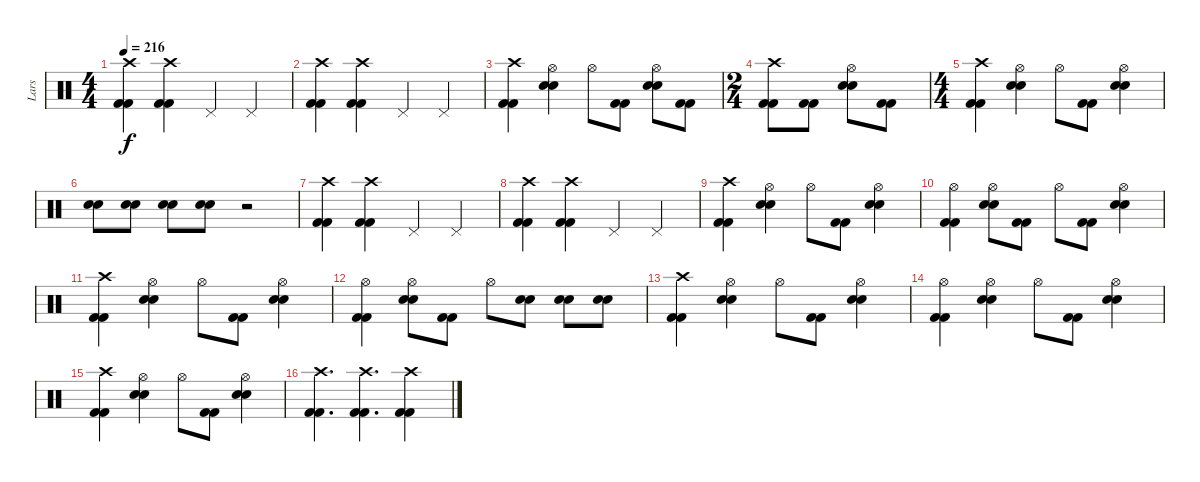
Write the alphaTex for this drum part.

\track ("Lars" "Lars") {instrument percussion}
\staff {score}
\articulation defaults
\ts (4 4)
\tempo 216
\clef neutral
\ks c
("Crash high (hit)" "Kick (hit) 2" "Kick (hit) 2").4{dy f} ("Crash high (hit)" "Kick (hit) 2" "Kick (hit) 2").4 "Pedal Hi-Hat (hit)".4 "Pedal Hi-Hat (hit)".4 |
("Crash high (hit)" "Kick (hit) 2" "Kick (hit) 2").4 ("Crash high (hit)" "Kick (hit) 2" "Kick (hit) 2").4 "Pedal Hi-Hat (hit)".4 "Pedal Hi-Hat (hit)".4 |
("Crash high (hit)" "Kick (hit) 2" "Kick (hit) 2").4 ("Hi-Hat (open)" "Electric Snare (hit)" "Electric Snare (hit)").4 "Hi-Hat (open)".8 ("Kick (hit) 2" "Kick (hit) 2").8 ("Hi-Hat (open)" "Electric Snare (hit)" "Electric Snare (hit)").8 ("Kick (hit) 2" "Kick (hit) 2").8 |
\ts (2 4)
("Crash high (hit)" "Kick (hit) 2" "Kick (hit) 2").8 ("Kick (hit) 2" "Kick (hit) 2").8 ("Hi-Hat (open)" "Electric Snare (hit)" "Electric Snare (hit)").8 ("Kick (hit) 2" "Kick (hit) 2").8 |
\ts (4 4)
("Crash high (hit)" "Kick (hit) 2" "Kick (hit) 2").4 ("Hi-Hat (open)" "Electric Snare (hit)" "Electric Snare (hit)").4 "Hi-Hat (open)".8 ("Kick (hit) 2" "Kick (hit) 2").8 ("Hi-Hat (open)" "Electric Snare (hit)" "Electric Snare (hit)").4 |
("Electric Snare (hit)" "Electric Snare (hit)").8 ("Electric Snare (hit)" "Electric Snare (hit)").8 ("Electric Snare (hit)" "Electric Snare (hit)").8 ("Electric Snare (hit)" "Electric Snare (hit)").8 r.2 |
("Crash high (hit)" "Kick (hit) 2" "Kick (hit) 2").4 ("Crash high (hit)" "Kick (hit) 2" "Kick (hit) 2").4 "Pedal Hi-Hat (hit)".4 "Pedal Hi-Hat (hit)".4 |
("Crash high (hit)" "Kick (hit) 2" "Kick (hit) 2").4 ("Crash high (hit)" "Kick (hit) 2" "Kick (hit) 2").4 "Pedal Hi-Hat (hit)".4 "Pedal Hi-Hat (hit)".4 |
("Crash high (hit)" "Kick (hit) 2" "Kick (hit) 2").4 ("Hi-Hat (open)" "Electric Snare (hit)" "Electric Snare (hit)").4 "Hi-Hat (open)".8 ("Kick (hit) 2" "Kick (hit) 2").8 ("Hi-Hat (open)" "Electric Snare (hit)" "Electric Snare (hit)").4 |
("Hi-Hat (open)" "Kick (hit) 2" "Kick (hit) 2").4 ("Hi-Hat (open)" "Electric Snare (hit)" "Electric Snare (hit)").8 ("Kick (hit) 2" "Kick (hit) 2").8 "Hi-Hat (open)".8 ("Kick (hit) 2" "Kick (hit) 2").8 ("Hi-Hat (open)" "Electric Snare (hit)" "Electric Snare (hit)").4 |
("Crash high (hit)" "Kick (hit) 2" "Kick (hit) 2").4 ("Hi-Hat (open)" "Electric Snare (hit)" "Electric Snare (hit)").4 "Hi-Hat (open)".8 ("Kick (hit) 2" "Kick (hit) 2").8 ("Hi-Hat (open)" "Electric Snare (hit)" "Electric Snare (hit)").4 |
("Hi-Hat (open)" "Kick (hit) 2" "Kick (hit) 2").4 ("Hi-Hat (open)" "Electric Snare (hit)" "Electric Snare (hit)").8 ("Kick (hit) 2" "Kick (hit) 2").8 "Hi-Hat (open)".8 ("Electric Snare (hit)" "Electric Snare (hit)").8 ("Electric Snare (hit)" "Electric Snare (hit)").8 ("Electric Snare (hit)" "Electric Snare (hit)").8 |
("Crash high (hit)" "Kick (hit) 2" "Kick (hit) 2").4 ("Hi-Hat (open)" "Electric Snare (hit)" "Electric Snare (hit)").4 "Hi-Hat (open)".8 ("Kick (hit) 2" "Kick (hit) 2").8 ("Hi-Hat (open)" "Electric Snare (hit)" "Electric Snare (hit)").4 |
("Hi-Hat (open)" "Kick (hit) 2" "Kick (hit) 2").4 ("Hi-Hat (open)" "Electric Snare (hit)" "Electric Snare (hit)").4 "Hi-Hat (open)".8 ("Kick (hit) 2" "Kick (hit) 2").8 ("Hi-Hat (open)" "Electric Snare (hit)" "Electric Snare (hit)").4 |
("Crash high (hit)" "Kick (hit) 2" "Kick (hit) 2").4 ("Hi-Hat (open)" "Electric Snare (hit)" "Electric Snare (hit)").4 "Hi-Hat (open)".8 ("Kick (hit) 2" "Kick (hit) 2").8 ("Hi-Hat (open)" "Electric Snare (hit)" "Electric Snare (hit)").4 |
("Crash high (hit)" "Kick (hit) 2" "Kick (hit) 2").4{d} ("Crash high (hit)" "Kick (hit) 2" "Kick (hit) 2").4{d} ("Crash high (hit)" "Kick (hit) 2" "Kick (hit) 2").4
